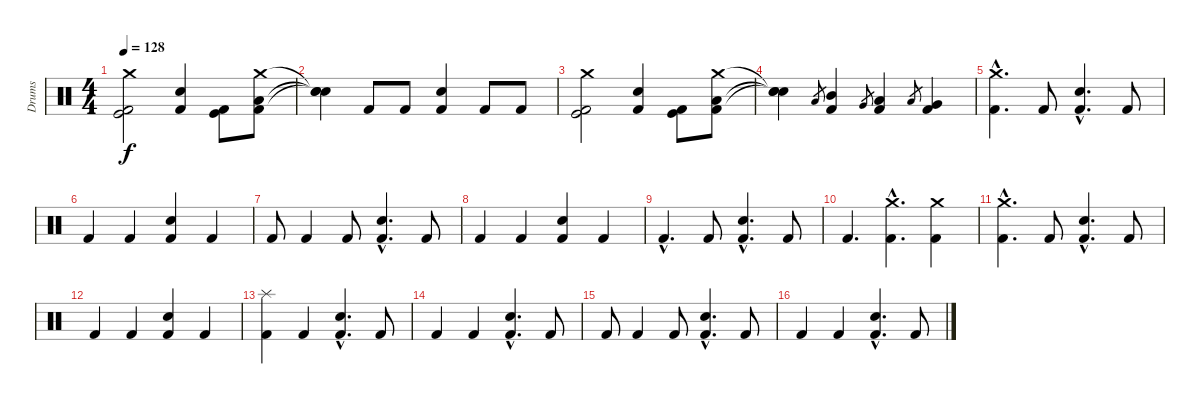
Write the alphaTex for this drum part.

\track ("Drums" "Drums") {instrument percussion}
\staff {score}
\articulation defaults
\ts (4 4)
\tempo 128
\clef neutral
\ks c
("Crash medium (hit)" "Kick (hit)" "Kick (hit) 2").2{dy f} ("Snare (hit) 2" "Kick (hit) 2").4 ("Kick (hit)" "Kick (hit) 2").8 ("Crash medium (hit)" "Low Floor Tom (hit)" "Kick (hit) 2").8 |
("Snare (hit)"{t} "Snare (hit)"{t} "Snare (hit)"{t}).4 "Kick (hit) 2".8 "Kick (hit) 2".8 ("Snare (hit) 2" "Kick (hit) 2").4 "Kick (hit) 2".8 "Kick (hit) 2".8 |
("Crash medium (hit)" "Kick (hit)" "Kick (hit) 2").2 ("Snare (hit) 2" "Kick (hit) 2").4 ("Kick (hit)" "Kick (hit) 2").8 ("Crash medium (hit)" "Low Floor Tom (hit)" "Kick (hit) 2").8 |
("Snare (hit)"{t} "Snare (hit)"{t} "Snare (hit)"{t}).4 "Low Tom (hit)".8{gr} ("Mid Tom (hit)" "Kick (hit) 2").4 "Very Low Tom (hit)".8{gr} ("Low Tom (hit)" "Kick (hit) 2").4 "Low Floor Tom (hit)".8{gr} ("Very Low Tom (hit)" "Kick (hit) 2").4 |
("Crash medium (hit)"{hac} "Kick (hit) 2"{hac}).4{d} "Kick (hit) 2".8 ("Snare (hit) 2"{hac} "Kick (hit) 2"{hac}).4{d} "Kick (hit) 2".8 |
"Kick (hit) 2".4 "Kick (hit) 2".4 ("Snare (hit) 2" "Kick (hit) 2").4 "Kick (hit) 2".4 |
"Kick (hit) 2".8 "Kick (hit) 2".4 "Kick (hit) 2".8 ("Snare (hit) 2"{hac} "Kick (hit) 2"{hac}).4{d} "Kick (hit) 2".8 |
"Kick (hit) 2".4 "Kick (hit) 2".4 ("Snare (hit) 2" "Kick (hit) 2").4 "Kick (hit) 2".4 |
"Kick (hit) 2"{hac}.4{d} "Kick (hit) 2".8 ("Snare (hit) 2"{hac} "Kick (hit) 2"{hac}).4{d} "Kick (hit) 2".8 |
"Kick (hit) 2".4{d} ("Crash medium (hit)"{hac} "Kick (hit) 2"{hac}).4{d} ("Crash medium (hit)" "Kick (hit) 2").4 |
("Crash medium (hit)"{hac} "Kick (hit) 2"{hac}).4{d} "Kick (hit) 2".8 ("Snare (hit) 2"{hac} "Kick (hit) 2"{hac}).4{d} "Kick (hit) 2".8 |
"Kick (hit) 2".4 "Kick (hit) 2".4 ("Snare (hit) 2" "Kick (hit) 2").4 "Kick (hit) 2".4 |
("Splash (hit)" "Kick (hit) 2").4 "Kick (hit) 2".4 ("Snare (hit) 2"{hac} "Kick (hit) 2"{hac}).4{d} "Kick (hit) 2".8 |
"Kick (hit) 2".4 "Kick (hit) 2".4 ("Snare (hit) 2"{hac} "Kick (hit) 2"{hac}).4{d} "Kick (hit) 2".8 |
"Kick (hit) 2".8 "Kick (hit) 2".4 "Kick (hit) 2".8 ("Snare (hit) 2"{hac} "Kick (hit) 2"{hac}).4{d} "Kick (hit) 2".8 |
"Kick (hit) 2".4 "Kick (hit) 2".4 ("Snare (hit) 2"{hac} "Kick (hit) 2"{hac}).4{d} "Kick (hit) 2".8
